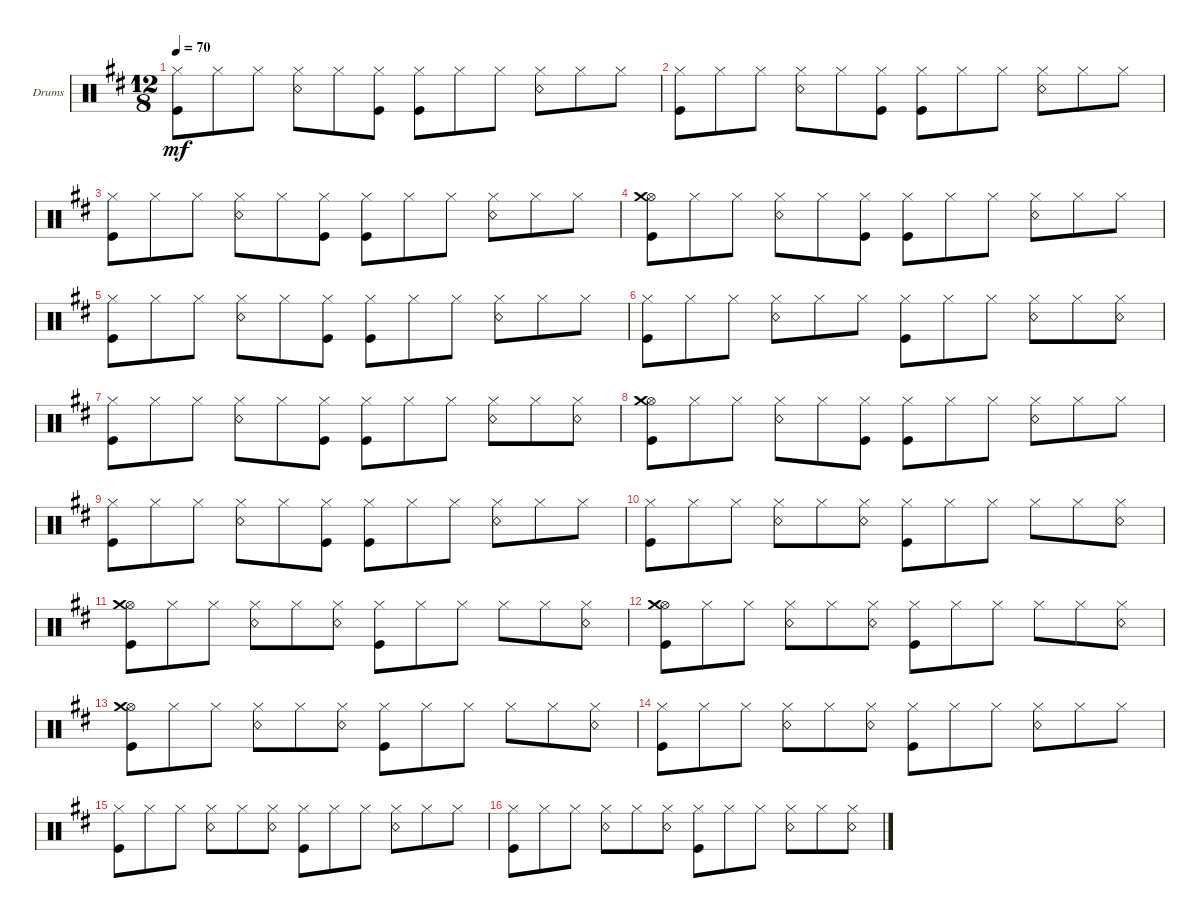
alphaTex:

\defaultSystemsLayout 4
\bracketExtendMode groupsimilarinstruments
\firstSystemTrackNameOrientation horizontal
\otherSystemsTrackNameOrientation horizontal
\track ("Drumkit" "Drums") {instrument percussion}
\staff {score}
\articulation defaults
\ts (12 8)
\tempo 70
\clef neutral
\ks d
("Hi-Hat (closed)" "Kick (hit)").8{dy mf} "Hi-Hat (closed)".8 "Hi-Hat (closed)".8 ("Hi-Hat (closed)" "Snare (rim shot)").8 "Hi-Hat (closed)".8 ("Hi-Hat (closed)" "Kick (hit)").8 ("Hi-Hat (closed)" "Kick (hit)").8 "Hi-Hat (closed)".8 "Hi-Hat (closed)".8 ("Snare (rim shot)" "Hi-Hat (closed)").8 "Hi-Hat (closed)".8 "Hi-Hat (closed)".8 |
("Hi-Hat (closed)" "Kick (hit)").8 "Hi-Hat (closed)".8 "Hi-Hat (closed)".8 ("Hi-Hat (closed)" "Snare (rim shot)").8 "Hi-Hat (closed)".8 ("Hi-Hat (closed)" "Kick (hit)").8 ("Hi-Hat (closed)" "Kick (hit)").8 "Hi-Hat (closed)".8 "Hi-Hat (closed)".8 ("Snare (rim shot)" "Hi-Hat (closed)").8 "Hi-Hat (closed)".8 "Hi-Hat (closed)".8 |
("Kick (hit)" "Hi-Hat (closed)").8 "Hi-Hat (closed)".8 "Hi-Hat (closed)".8 ("Hi-Hat (closed)" "Snare (rim shot)").8 "Hi-Hat (closed)".8 ("Hi-Hat (closed)" "Kick (hit)").8 ("Hi-Hat (closed)" "Kick (hit)").8 "Hi-Hat (closed)".8 "Hi-Hat (closed)".8 ("Snare (rim shot)" "Hi-Hat (closed)").8 "Hi-Hat (closed)".8 "Hi-Hat (closed)".8 |
("Hi-Hat (open)" "Kick (hit)" "Crash medium (hit)").8 "Hi-Hat (closed)".8 "Hi-Hat (closed)".8 ("Hi-Hat (closed)" "Snare (rim shot)").8 "Hi-Hat (closed)".8 ("Hi-Hat (closed)" "Kick (hit)").8 ("Hi-Hat (closed)" "Kick (hit)").8 "Hi-Hat (closed)".8 "Hi-Hat (closed)".8 ("Snare (rim shot)" "Hi-Hat (closed)").8 "Hi-Hat (closed)".8 "Hi-Hat (closed)".8 |
("Hi-Hat (closed)" "Kick (hit)").8 "Hi-Hat (closed)".8 "Hi-Hat (closed)".8 ("Hi-Hat (closed)" "Snare (rim shot)").8 "Hi-Hat (closed)".8 ("Hi-Hat (closed)" "Kick (hit)").8 ("Hi-Hat (closed)" "Kick (hit)").8 "Hi-Hat (closed)".8 "Hi-Hat (closed)".8 ("Snare (rim shot)" "Hi-Hat (closed)").8 "Hi-Hat (closed)".8 "Hi-Hat (closed)".8 |
("Hi-Hat (closed)" "Kick (hit)").8 "Hi-Hat (closed)".8 "Hi-Hat (closed)".8 ("Hi-Hat (closed)" "Snare (rim shot)").8 "Hi-Hat (closed)".8 "Hi-Hat (closed)".8 ("Hi-Hat (closed)" "Kick (hit)").8 "Hi-Hat (closed)".8 "Hi-Hat (closed)".8 ("Hi-Hat (closed)" "Snare (rim shot)").8 "Hi-Hat (closed)".8 ("Hi-Hat (closed)" "Snare (rim shot)").8 |
("Hi-Hat (closed)" "Kick (hit)").8 "Hi-Hat (closed)".8 "Hi-Hat (closed)".8 ("Hi-Hat (closed)" "Snare (rim shot)").8 "Hi-Hat (closed)".8 ("Hi-Hat (closed)" "Kick (hit)").8 ("Hi-Hat (closed)" "Kick (hit)").8 "Hi-Hat (closed)".8 "Hi-Hat (closed)".8 ("Hi-Hat (closed)" "Snare (rim shot)").8 "Hi-Hat (closed)".8 ("Hi-Hat (closed)" "Snare (rim shot)").8 |
("Hi-Hat (open)" "Crash medium (hit)" "Kick (hit)").8 "Hi-Hat (closed)".8 "Hi-Hat (closed)".8 ("Hi-Hat (closed)" "Snare (rim shot)").8 "Hi-Hat (closed)".8 ("Hi-Hat (closed)" "Kick (hit)").8 ("Kick (hit)" "Hi-Hat (closed)").8 "Hi-Hat (closed)".8 "Hi-Hat (closed)".8 ("Hi-Hat (closed)" "Snare (rim shot)").8 "Hi-Hat (closed)".8 "Hi-Hat (closed)".8 |
("Hi-Hat (closed)" "Kick (hit)").8 "Hi-Hat (closed)".8 "Hi-Hat (closed)".8 ("Hi-Hat (closed)" "Snare (rim shot)").8 "Hi-Hat (closed)".8 ("Hi-Hat (closed)" "Kick (hit)").8 ("Hi-Hat (closed)" "Kick (hit)").8 "Hi-Hat (closed)".8 "Hi-Hat (closed)".8 ("Hi-Hat (closed)" "Snare (rim shot)").8 "Hi-Hat (closed)".8 "Hi-Hat (closed)".8 |
("Hi-Hat (closed)" "Kick (hit)").8 "Hi-Hat (closed)".8 "Hi-Hat (closed)".8 ("Hi-Hat (closed)" "Snare (rim shot)").8 "Hi-Hat (closed)".8 ("Hi-Hat (closed)" "Snare (rim shot)").8 ("Hi-Hat (closed)" "Kick (hit)").8 "Hi-Hat (closed)".8 "Hi-Hat (closed)".8 "Hi-Hat (closed)".8 "Hi-Hat (closed)".8 ("Hi-Hat (closed)" "Snare (rim shot)").8 |
("Hi-Hat (open)" "Crash medium (hit)" "Kick (hit)").8 "Hi-Hat (closed)".8 "Hi-Hat (closed)".8 ("Hi-Hat (closed)" "Snare (rim shot)").8 "Hi-Hat (closed)".8 ("Hi-Hat (closed)" "Snare (rim shot)").8 ("Hi-Hat (closed)" "Kick (hit)").8 "Hi-Hat (closed)".8 "Hi-Hat (closed)".8 "Hi-Hat (closed)".8 "Hi-Hat (closed)".8 ("Hi-Hat (closed)" "Snare (rim shot)").8 |
("Hi-Hat (open)" "Crash medium (hit)" "Kick (hit)").8 "Hi-Hat (closed)".8 "Hi-Hat (closed)".8 ("Hi-Hat (closed)" "Snare (rim shot)").8 "Hi-Hat (closed)".8 ("Hi-Hat (closed)" "Snare (rim shot)").8 ("Hi-Hat (closed)" "Kick (hit)").8 "Hi-Hat (closed)".8 "Hi-Hat (closed)".8 "Hi-Hat (closed)".8 "Hi-Hat (closed)".8 ("Hi-Hat (closed)" "Snare (rim shot)").8 |
("Hi-Hat (open)" "Crash medium (hit)" "Kick (hit)").8 "Hi-Hat (closed)".8 "Hi-Hat (closed)".8 ("Hi-Hat (closed)" "Snare (rim shot)").8 "Hi-Hat (closed)".8 ("Hi-Hat (closed)" "Snare (rim shot)").8 ("Hi-Hat (closed)" "Kick (hit)").8 "Hi-Hat (closed)".8 "Hi-Hat (closed)".8 "Hi-Hat (closed)".8 "Hi-Hat (closed)".8 ("Hi-Hat (closed)" "Snare (rim shot)").8 |
("Hi-Hat (closed)" "Kick (hit)").8 "Hi-Hat (closed)".8 "Hi-Hat (closed)".8 ("Hi-Hat (closed)" "Snare (rim shot)").8 "Hi-Hat (closed)".8 ("Hi-Hat (closed)" "Snare (rim shot)").8 ("Hi-Hat (closed)" "Kick (hit)").8 "Hi-Hat (closed)".8 "Hi-Hat (closed)".8 ("Hi-Hat (closed)" "Snare (rim shot)").8 "Hi-Hat (closed)".8 "Hi-Hat (closed)".8 |
("Hi-Hat (closed)" "Kick (hit)").8 "Hi-Hat (closed)".8 "Hi-Hat (closed)".8 ("Hi-Hat (closed)" "Snare (rim shot)").8 "Hi-Hat (closed)".8 ("Hi-Hat (closed)" "Snare (rim shot)").8 ("Hi-Hat (closed)" "Kick (hit)").8 "Hi-Hat (closed)".8 "Hi-Hat (closed)".8 ("Hi-Hat (closed)" "Snare (rim shot)").8 "Hi-Hat (closed)".8 "Hi-Hat (closed)".8 |
("Hi-Hat (closed)" "Kick (hit)").8 "Hi-Hat (closed)".8 "Hi-Hat (closed)".8 ("Hi-Hat (closed)" "Snare (rim shot)").8 "Hi-Hat (closed)".8 ("Hi-Hat (closed)" "Snare (rim shot)").8 ("Hi-Hat (closed)" "Kick (hit)").8 "Hi-Hat (closed)".8 "Hi-Hat (closed)".8 ("Hi-Hat (closed)" "Snare (rim shot)").8 "Hi-Hat (closed)".8 ("Hi-Hat (closed)" "Snare (rim shot)").8
